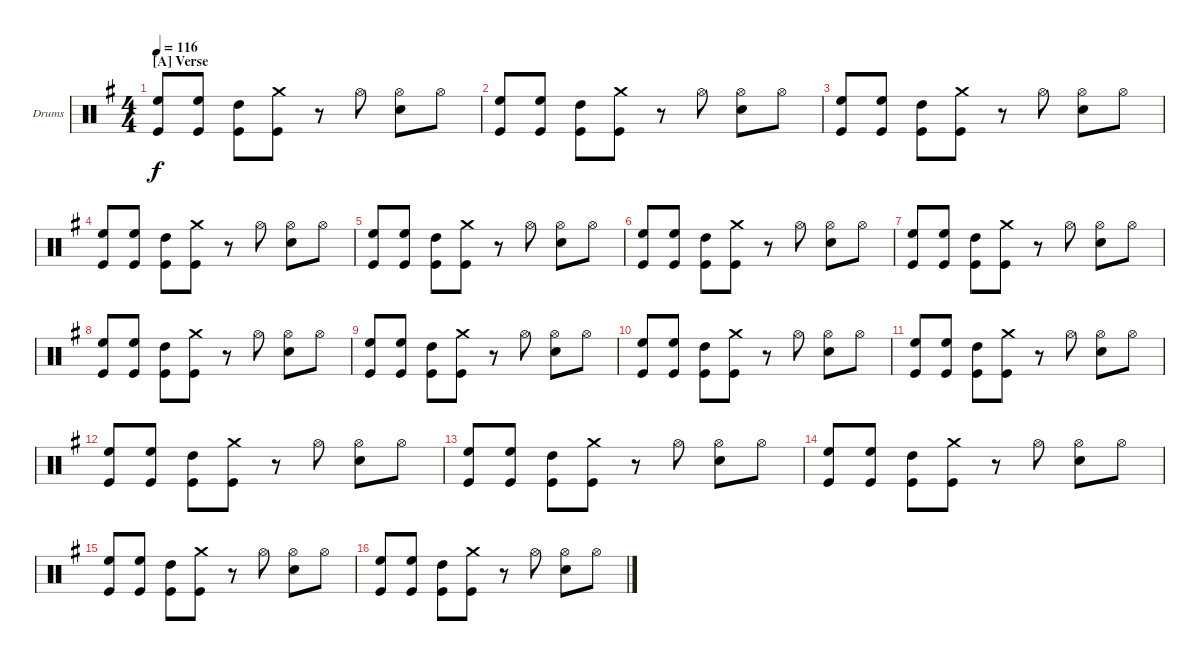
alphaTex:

\defaultSystemsLayout 4
\bracketExtendMode groupsimilarinstruments
\firstSystemTrackNameOrientation horizontal
\otherSystemsTrackNameOrientation horizontal
\track ("Drumkit" "Drums") {instrument percussion}
\staff {score}
\articulation defaults
\ts (4 4)
\section ("A" "Verse")
\tempo 116
\clef neutral
\scale
1.02648
\ks g
("High Floor Tom (hit)" "Kick (hit)").8{dy f} ("High Floor Tom (hit)" "Kick (hit)").8 ("High Tom (hit)" "Kick (hit)").8 ("Crash medium (hit)" "Kick (hit)").8 r.8 "Hi-Hat (open)".8 ("Hi-Hat (open)" "Snare (hit) 2").8 "Hi-Hat (open)".8 |
\scale
0.973518 ("High Floor Tom (hit)" "Kick (hit)").8 ("High Floor Tom (hit)" "Kick (hit)").8 ("High Tom (hit)" "Kick (hit)").8 ("Crash medium (hit)" "Kick (hit)").8 r.8 "Hi-Hat (open)".8 ("Hi-Hat (open)" "Snare (hit) 2").8 "Hi-Hat (open)".8 |
\scale
1.02648 ("High Floor Tom (hit)" "Kick (hit)").8 ("High Floor Tom (hit)" "Kick (hit)").8 ("High Tom (hit)" "Kick (hit)").8 ("Crash medium (hit)" "Kick (hit)").8 r.8 "Hi-Hat (open)".8 ("Hi-Hat (open)" "Snare (hit) 2").8 "Hi-Hat (open)".8 |
\scale
0.973518 ("High Floor Tom (hit)" "Kick (hit)").8 ("High Floor Tom (hit)" "Kick (hit)").8 ("High Tom (hit)" "Kick (hit)").8 ("Crash medium (hit)" "Kick (hit)").8 r.8 "Hi-Hat (open)".8 ("Hi-Hat (open)" "Snare (hit) 2").8 "Hi-Hat (open)".8 |
\scale
1.02648 ("High Floor Tom (hit)" "Kick (hit)").8 ("High Floor Tom (hit)" "Kick (hit)").8 ("High Tom (hit)" "Kick (hit)").8 ("Crash medium (hit)" "Kick (hit)").8 r.8 "Hi-Hat (open)".8 ("Hi-Hat (open)" "Snare (hit) 2").8 "Hi-Hat (open)".8 |
\scale
0.973518 ("High Floor Tom (hit)" "Kick (hit)").8 ("High Floor Tom (hit)" "Kick (hit)").8 ("High Tom (hit)" "Kick (hit)").8 ("Crash medium (hit)" "Kick (hit)").8 r.8 "Hi-Hat (open)".8 ("Hi-Hat (open)" "Snare (hit) 2").8 "Hi-Hat (open)".8 |
\scale
1.02648 ("High Floor Tom (hit)" "Kick (hit)").8 ("High Floor Tom (hit)" "Kick (hit)").8 ("High Tom (hit)" "Kick (hit)").8 ("Crash medium (hit)" "Kick (hit)").8 r.8 "Hi-Hat (open)".8 ("Hi-Hat (open)" "Snare (hit) 2").8 "Hi-Hat (open)".8 |
\scale
0.973518 ("High Floor Tom (hit)" "Kick (hit)").8 ("High Floor Tom (hit)" "Kick (hit)").8 ("High Tom (hit)" "Kick (hit)").8 ("Crash medium (hit)" "Kick (hit)").8 r.8 "Hi-Hat (open)".8 ("Hi-Hat (open)" "Snare (hit) 2").8 "Hi-Hat (open)".8 |
\scale
1.02648 ("High Floor Tom (hit)" "Kick (hit)").8 ("High Floor Tom (hit)" "Kick (hit)").8 ("High Tom (hit)" "Kick (hit)").8 ("Crash medium (hit)" "Kick (hit)").8 r.8 "Hi-Hat (open)".8 ("Hi-Hat (open)" "Snare (hit) 2").8 "Hi-Hat (open)".8 |
\scale
0.973518 ("High Floor Tom (hit)" "Kick (hit)").8 ("High Floor Tom (hit)" "Kick (hit)").8 ("High Tom (hit)" "Kick (hit)").8 ("Crash medium (hit)" "Kick (hit)").8 r.8 "Hi-Hat (open)".8 ("Hi-Hat (open)" "Snare (hit) 2").8 "Hi-Hat (open)".8 |
\scale
1.02648 ("High Floor Tom (hit)" "Kick (hit)").8 ("High Floor Tom (hit)" "Kick (hit)").8 ("High Tom (hit)" "Kick (hit)").8 ("Crash medium (hit)" "Kick (hit)").8 r.8 "Hi-Hat (open)".8 ("Hi-Hat (open)" "Snare (hit) 2").8 "Hi-Hat (open)".8 |
\scale
0.973518 ("High Floor Tom (hit)" "Kick (hit)").8 ("High Floor Tom (hit)" "Kick (hit)").8 ("High Tom (hit)" "Kick (hit)").8 ("Crash medium (hit)" "Kick (hit)").8 r.8 "Hi-Hat (open)".8 ("Hi-Hat (open)" "Snare (hit) 2").8 "Hi-Hat (open)".8 |
\scale
1.02648 ("High Floor Tom (hit)" "Kick (hit)").8 ("High Floor Tom (hit)" "Kick (hit)").8 ("High Tom (hit)" "Kick (hit)").8 ("Crash medium (hit)" "Kick (hit)").8 r.8 "Hi-Hat (open)".8 ("Hi-Hat (open)" "Snare (hit) 2").8 "Hi-Hat (open)".8 |
\scale
0.973518 ("High Floor Tom (hit)" "Kick (hit)").8 ("High Floor Tom (hit)" "Kick (hit)").8 ("High Tom (hit)" "Kick (hit)").8 ("Crash medium (hit)" "Kick (hit)").8 r.8 "Hi-Hat (open)".8 ("Hi-Hat (open)" "Snare (hit) 2").8 "Hi-Hat (open)".8 |
\scale
1.02648 ("High Floor Tom (hit)" "Kick (hit)").8 ("High Floor Tom (hit)" "Kick (hit)").8 ("High Tom (hit)" "Kick (hit)").8 ("Crash medium (hit)" "Kick (hit)").8 r.8 "Hi-Hat (open)".8 ("Hi-Hat (open)" "Snare (hit) 2").8 "Hi-Hat (open)".8 |
\scale
0.973518 ("High Floor Tom (hit)" "Kick (hit)").8 ("High Floor Tom (hit)" "Kick (hit)").8 ("High Tom (hit)" "Kick (hit)").8 ("Crash medium (hit)" "Kick (hit)").8 r.8 "Hi-Hat (open)".8 ("Hi-Hat (open)" "Snare (hit) 2").8 "Hi-Hat (open)".8
